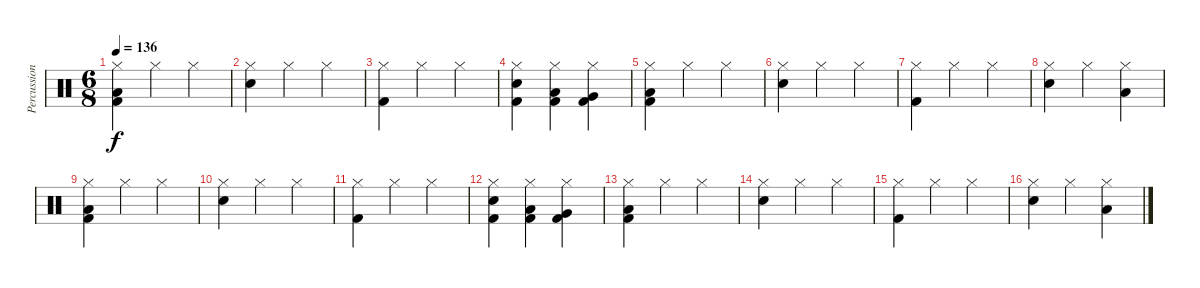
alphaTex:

\track ("Percussion" "Percussion") {instrument percussion}
\staff {score}
\articulation defaults
\ts (6 8)
\tempo 136
\clef neutral
\ks c
("Hi-Hat (closed)" "Low Tom (hit)" "Kick (hit) 2").4{dy f} "Hi-Hat (closed)".4 "Hi-Hat (closed)".4 |
("Hi-Hat (closed)" "Snare (hit) 2").4 "Hi-Hat (closed)".4 "Hi-Hat (closed)".4 |
("Hi-Hat (closed)" "Kick (hit) 2").4 "Hi-Hat (closed)".4 "Hi-Hat (closed)".4 |
("Hi-Hat (closed)" "Snare (hit) 2" "Kick (hit) 2").4 ("Hi-Hat (closed)" "Low Floor Tom (hit)" "Kick (hit) 2").4 ("Hi-Hat (closed)" "Very Low Tom (hit)" "Kick (hit) 2").4 |
("Hi-Hat (closed)" "Low Tom (hit)" "Kick (hit) 2").4 "Hi-Hat (closed)".4 "Hi-Hat (closed)".4 |
("Hi-Hat (closed)" "Snare (hit) 2").4 "Hi-Hat (closed)".4 "Hi-Hat (closed)".4 |
("Hi-Hat (closed)" "Kick (hit) 2").4 "Hi-Hat (closed)".4 "Hi-Hat (closed)".4 |
("Hi-Hat (closed)" "Snare (hit) 2").4 "Hi-Hat (closed)".4 ("Hi-Hat (closed)" "Low Floor Tom (hit)").4 |
("Hi-Hat (closed)" "Low Tom (hit)" "Kick (hit) 2").4 "Hi-Hat (closed)".4 "Hi-Hat (closed)".4 |
("Hi-Hat (closed)" "Snare (hit) 2").4 "Hi-Hat (closed)".4 "Hi-Hat (closed)".4 |
("Hi-Hat (closed)" "Kick (hit) 2").4 "Hi-Hat (closed)".4 "Hi-Hat (closed)".4 |
("Hi-Hat (closed)" "Snare (hit) 2" "Kick (hit) 2").4 ("Hi-Hat (closed)" "Low Floor Tom (hit)" "Kick (hit) 2").4 ("Hi-Hat (closed)" "Very Low Tom (hit)" "Kick (hit) 2").4 |
("Hi-Hat (closed)" "Low Tom (hit)" "Kick (hit) 2").4 "Hi-Hat (closed)".4 "Hi-Hat (closed)".4 |
("Hi-Hat (closed)" "Snare (hit) 2").4 "Hi-Hat (closed)".4 "Hi-Hat (closed)".4 |
("Hi-Hat (closed)" "Kick (hit) 2").4 "Hi-Hat (closed)".4 "Hi-Hat (closed)".4 |
("Hi-Hat (closed)" "Snare (hit) 2").4 "Hi-Hat (closed)".4 ("Hi-Hat (closed)" "Low Floor Tom (hit)").4
